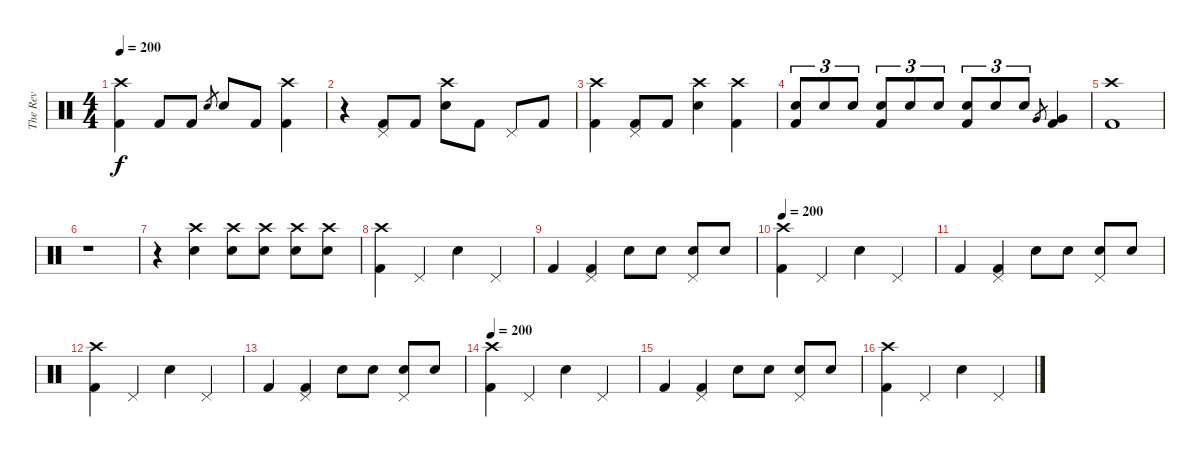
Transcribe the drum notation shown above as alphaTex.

\track ("The Rev" "The Rev") {instrument percussion}
\staff {score}
\articulation defaults
\ts (4 4)
\tempo 200
\clef neutral
\ks c
("Crash high (hit)" "Kick (hit) 2").4{dy f} "Kick (hit) 2".8 "Kick (hit) 2".8 "Electric Snare (hit)".8{gr} "Electric Snare (hit)".8 "Kick (hit) 2".8 ("Crash high (hit)" "Kick (hit) 2").4 |
r.4 ("Pedal Hi-Hat (hit)" "Kick (hit) 2").8 "Kick (hit) 2".8 ("Crash high (hit)" "Electric Snare (hit)").8 "Kick (hit) 2".8 "Pedal Hi-Hat (hit)".8 "Kick (hit) 2".8 |
("Crash high (hit)" "Kick (hit) 2").4 ("Pedal Hi-Hat (hit)" "Kick (hit) 2").8 "Kick (hit) 2".8 ("Crash high (hit)" "Electric Snare (hit)").4 ("Crash high (hit)" "Kick (hit) 2").4 |
("Electric Snare (hit)" "Kick (hit) 2").8{tu (3 2)} "Electric Snare (hit)".8{tu (3 2)} "Electric Snare (hit)".8{tu (3 2)} ("Electric Snare (hit)" "Kick (hit) 2").8{tu (3 2)} "Electric Snare (hit)".8{tu (3 2)} "Electric Snare (hit)".8{tu (3 2)} ("Electric Snare (hit)" "Kick (hit) 2").8{tu (3 2)} "Electric Snare (hit)".8{tu (3 2)} "Electric Snare (hit)".8{tu (3 2)} "Very Low Tom (hit)".8{gr} ("Very Low Tom (hit)" "Kick (hit) 2").4 |
("Crash high (hit)" "Kick (hit) 2").1 |
r.1 |
r.4 ("Crash high (hit)" "Electric Snare (hit)").4 ("Crash high (hit)" "Electric Snare (hit)").8 ("Crash high (hit)" "Electric Snare (hit)").8 ("Crash high (hit)" "Electric Snare (hit)").8 ("Crash high (hit)" "Electric Snare (hit)").8 |
("Crash high (hit)" "Kick (hit) 2").4{volume 12} "Pedal Hi-Hat (hit)".4 "Electric Snare (hit)".4 "Pedal Hi-Hat (hit)".4 |
"Kick (hit) 2".4 ("Pedal Hi-Hat (hit)" "Kick (hit) 2").4 "Electric Snare (hit)".8 "Electric Snare (hit)".8 ("Pedal Hi-Hat (hit)" "Electric Snare (hit)").8 "Electric Snare (hit)".8 |
\tempo 200
("Crash high (hit)" "Kick (hit) 2").4 "Pedal Hi-Hat (hit)".4 "Electric Snare (hit)".4 "Pedal Hi-Hat (hit)".4 |
"Kick (hit) 2".4 ("Pedal Hi-Hat (hit)" "Kick (hit) 2").4 "Electric Snare (hit)".8 "Electric Snare (hit)".8 ("Pedal Hi-Hat (hit)" "Electric Snare (hit)").8 "Electric Snare (hit)".8 |
("Crash high (hit)" "Kick (hit) 2").4{volume 8} "Pedal Hi-Hat (hit)".4 "Electric Snare (hit)".4 "Pedal Hi-Hat (hit)".4 |
"Kick (hit) 2".4 ("Pedal Hi-Hat (hit)" "Kick (hit) 2").4 "Electric Snare (hit)".8 "Electric Snare (hit)".8 ("Pedal Hi-Hat (hit)" "Electric Snare (hit)").8 "Electric Snare (hit)".8 |
\tempo 200
("Crash high (hit)" "Kick (hit) 2").4 "Pedal Hi-Hat (hit)".4 "Electric Snare (hit)".4 "Pedal Hi-Hat (hit)".4 |
"Kick (hit) 2".4 ("Pedal Hi-Hat (hit)" "Kick (hit) 2").4 "Electric Snare (hit)".8 "Electric Snare (hit)".8 ("Pedal Hi-Hat (hit)" "Electric Snare (hit)").8 "Electric Snare (hit)".8 |
("Crash high (hit)" "Kick (hit) 2").4{volume 0} "Pedal Hi-Hat (hit)".4 "Electric Snare (hit)".4 "Pedal Hi-Hat (hit)".4
